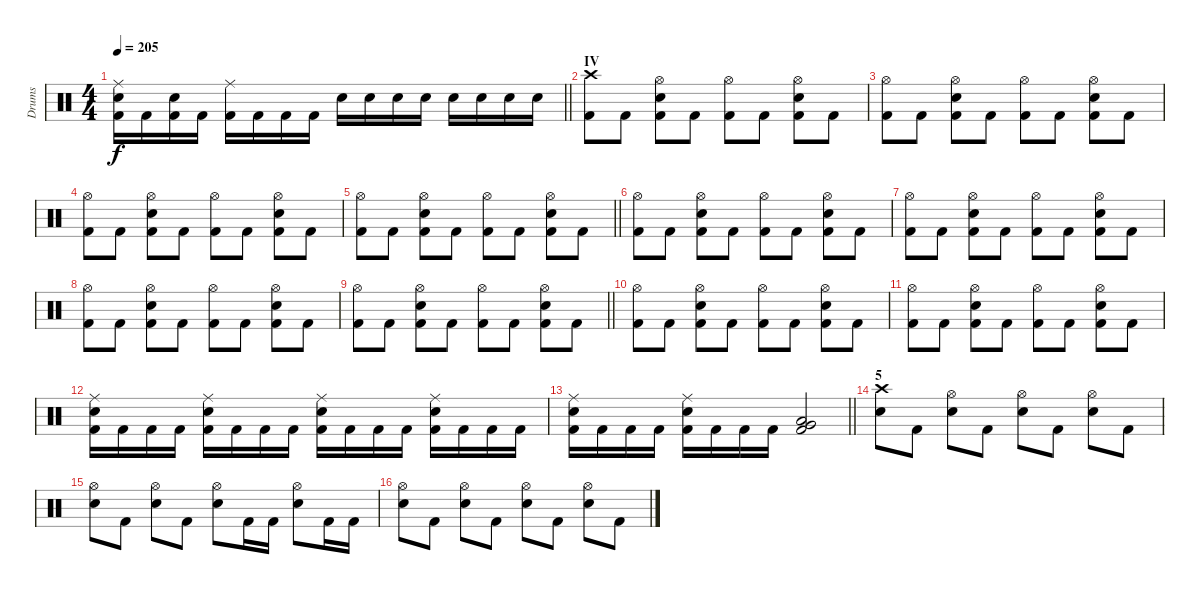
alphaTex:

\track ("Drums" "Drums") {instrument percussion}
\staff {score}
\articulation defaults
\ts (4 4)
\tempo 205
\clef neutral
\barLineRight lightlight
\ks c
("Ride (middle)" "Electric Snare (hit)" "Kick (hit) 2").16{dy f} "Kick (hit) 2".16 ("Electric Snare (hit)" "Kick (hit) 2").16 "Kick (hit) 2".16 ("Ride (middle)" "Kick (hit) 2").16 "Kick (hit) 2".16 "Kick (hit) 2".16 "Kick (hit) 2".16 "Electric Snare (hit)".16 "Electric Snare (hit)".16 "Electric Snare (hit)".16 "Electric Snare (hit)".16 "Electric Snare (hit)".16 "Electric Snare (hit)".16 "Electric Snare (hit)".16 "Electric Snare (hit)".16 |
\section ("" "IV")
("Crash high (hit)" "Kick (hit) 2").8 "Kick (hit) 2".8 ("Hi-Hat (open)" "Electric Snare (hit)" "Kick (hit) 2").8 "Kick (hit) 2".8 ("Hi-Hat (open)" "Kick (hit) 2").8 "Kick (hit) 2".8 ("Hi-Hat (open)" "Electric Snare (hit)" "Kick (hit) 2").8 "Kick (hit) 2".8 |
("Hi-Hat (open)" "Kick (hit) 2").8 "Kick (hit) 2".8 ("Hi-Hat (open)" "Electric Snare (hit)" "Kick (hit) 2").8 "Kick (hit) 2".8 ("Hi-Hat (open)" "Kick (hit) 2").8 "Kick (hit) 2".8 ("Hi-Hat (open)" "Electric Snare (hit)" "Kick (hit) 2").8 "Kick (hit) 2".8 |
("Hi-Hat (open)" "Kick (hit) 2").8 "Kick (hit) 2".8 ("Hi-Hat (open)" "Electric Snare (hit)" "Kick (hit) 2").8 "Kick (hit) 2".8 ("Hi-Hat (open)" "Kick (hit) 2").8 "Kick (hit) 2".8 ("Hi-Hat (open)" "Electric Snare (hit)" "Kick (hit) 2").8 "Kick (hit) 2".8 |
\barLineRight lightlight
("Hi-Hat (open)" "Kick (hit) 2").8 "Kick (hit) 2".8 ("Hi-Hat (open)" "Electric Snare (hit)" "Kick (hit) 2").8 "Kick (hit) 2".8 ("Hi-Hat (open)" "Kick (hit) 2").8 "Kick (hit) 2".8 ("Hi-Hat (open)" "Electric Snare (hit)" "Kick (hit) 2").8 "Kick (hit) 2".8 |
("Hi-Hat (open)" "Kick (hit) 2").8 "Kick (hit) 2".8 ("Hi-Hat (open)" "Electric Snare (hit)" "Kick (hit) 2").8 "Kick (hit) 2".8 ("Hi-Hat (open)" "Kick (hit) 2").8 "Kick (hit) 2".8 ("Hi-Hat (open)" "Electric Snare (hit)" "Kick (hit) 2").8 "Kick (hit) 2".8 |
("Hi-Hat (open)" "Kick (hit) 2").8 "Kick (hit) 2".8 ("Hi-Hat (open)" "Electric Snare (hit)" "Kick (hit) 2").8 "Kick (hit) 2".8 ("Hi-Hat (open)" "Kick (hit) 2").8 "Kick (hit) 2".8 ("Hi-Hat (open)" "Electric Snare (hit)" "Kick (hit) 2").8 "Kick (hit) 2".8 |
("Hi-Hat (open)" "Kick (hit) 2").8 "Kick (hit) 2".8 ("Hi-Hat (open)" "Electric Snare (hit)" "Kick (hit) 2").8 "Kick (hit) 2".8 ("Hi-Hat (open)" "Kick (hit) 2").8 "Kick (hit) 2".8 ("Hi-Hat (open)" "Electric Snare (hit)" "Kick (hit) 2").8 "Kick (hit) 2".8 |
\barLineRight lightlight
("Hi-Hat (open)" "Kick (hit) 2").8 "Kick (hit) 2".8 ("Hi-Hat (open)" "Electric Snare (hit)" "Kick (hit) 2").8 "Kick (hit) 2".8 ("Hi-Hat (open)" "Kick (hit) 2").8 "Kick (hit) 2".8 ("Hi-Hat (open)" "Electric Snare (hit)" "Kick (hit) 2").8 "Kick (hit) 2".8 |
("Hi-Hat (open)" "Kick (hit) 2").8 "Kick (hit) 2".8 ("Hi-Hat (open)" "Electric Snare (hit)" "Kick (hit) 2").8 "Kick (hit) 2".8 ("Hi-Hat (open)" "Kick (hit) 2").8 "Kick (hit) 2".8 ("Hi-Hat (open)" "Electric Snare (hit)" "Kick (hit) 2").8 "Kick (hit) 2".8 |
("Hi-Hat (open)" "Kick (hit) 2").8 "Kick (hit) 2".8 ("Hi-Hat (open)" "Electric Snare (hit)" "Kick (hit) 2").8 "Kick (hit) 2".8 ("Hi-Hat (open)" "Kick (hit) 2").8 "Kick (hit) 2".8 ("Hi-Hat (open)" "Electric Snare (hit)" "Kick (hit) 2").8 "Kick (hit) 2".8 |
("Ride (middle)" "Electric Snare (hit)" "Kick (hit) 2").16 "Kick (hit) 2".16 "Kick (hit) 2".16 "Kick (hit) 2".16 ("Ride (middle)" "Electric Snare (hit)" "Kick (hit) 2").16 "Kick (hit) 2".16 "Kick (hit) 2".16 "Kick (hit) 2".16 ("Ride (middle)" "Electric Snare (hit)" "Kick (hit) 2").16 "Kick (hit) 2".16 "Kick (hit) 2".16 "Kick (hit) 2".16 ("Ride (middle)" "Electric Snare (hit)" "Kick (hit) 2").16 "Kick (hit) 2".16 "Kick (hit) 2".16 "Kick (hit) 2".16 |
\barLineRight lightlight
("Ride (middle)" "Electric Snare (hit)" "Kick (hit) 2").16 "Kick (hit) 2".16 "Kick (hit) 2".16 "Kick (hit) 2".16 ("Ride (middle)" "Electric Snare (hit)" "Kick (hit) 2").16 "Kick (hit) 2".16 "Kick (hit) 2".16 "Kick (hit) 2".16 ("Low Tom (hit)" "Very Low Tom (hit)" "Kick (hit) 2").2 |
\section ("" "5")
("Crash high (hit)" "Electric Snare (hit)").8 "Kick (hit) 2".8 ("Hi-Hat (open)" "Electric Snare (hit)").8 "Kick (hit) 2".8 ("Hi-Hat (open)" "Electric Snare (hit)").8 "Kick (hit) 2".8 ("Hi-Hat (open)" "Electric Snare (hit)").8 "Kick (hit) 2".8 |
("Hi-Hat (open)" "Electric Snare (hit)").8 "Kick (hit) 2".8 ("Hi-Hat (open)" "Electric Snare (hit)").8 "Kick (hit) 2".8 ("Hi-Hat (open)" "Electric Snare (hit)").8 "Kick (hit) 2".16 "Kick (hit) 2".16 ("Hi-Hat (open)" "Electric Snare (hit)").8 "Kick (hit) 2".16 "Kick (hit) 2".16 |
("Hi-Hat (open)" "Electric Snare (hit)").8 "Kick (hit) 2".8 ("Hi-Hat (open)" "Electric Snare (hit)").8 "Kick (hit) 2".8 ("Hi-Hat (open)" "Electric Snare (hit)").8 "Kick (hit) 2".8 ("Hi-Hat (open)" "Electric Snare (hit)").8 "Kick (hit) 2".8
